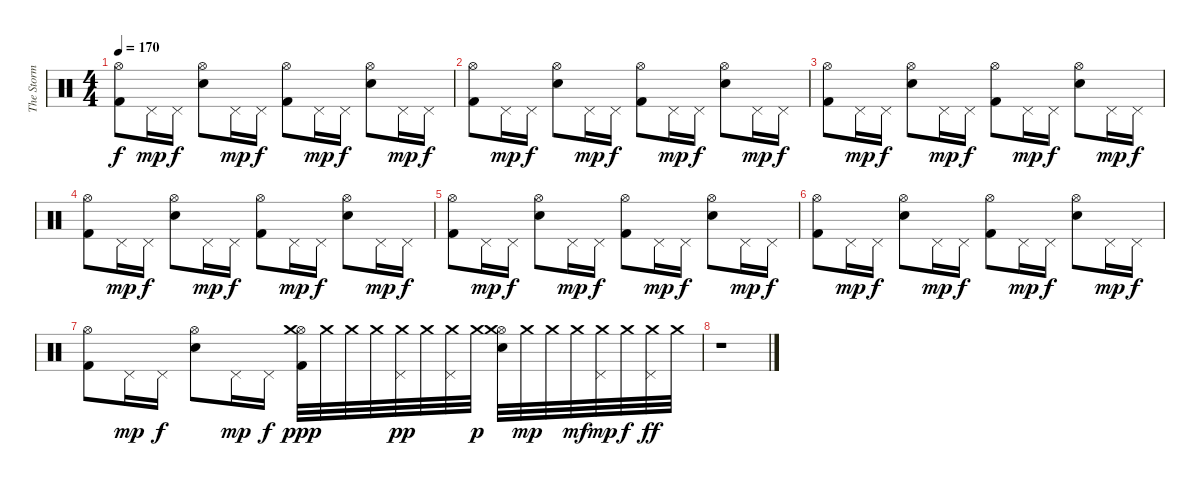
\track ("The Storm" "The Storm") {instrument percussion}
\staff {score}
\articulation defaults
\ts (4 4)
\tempo 170
\clef neutral
\ks c
("Kick (hit) 2" "Hi-Hat (open)").8{dy f} "Pedal Hi-Hat (hit)".16{dy mp} "Pedal Hi-Hat (hit)".16{dy f} ("Hi-Hat (open)" "Electric Snare (hit)").8 "Pedal Hi-Hat (hit)".16{dy mp} "Pedal Hi-Hat (hit)".16{dy f} ("Hi-Hat (open)" "Kick (hit) 2").8 "Pedal Hi-Hat (hit)".16{dy mp} "Pedal Hi-Hat (hit)".16{dy f} ("Electric Snare (hit)" "Hi-Hat (open)").8 "Pedal Hi-Hat (hit)".16{dy mp} "Pedal Hi-Hat (hit)".16{dy f} |
("Hi-Hat (open)" "Kick (hit) 2").8 "Pedal Hi-Hat (hit)".16{dy mp} "Pedal Hi-Hat (hit)".16{dy f} ("Electric Snare (hit)" "Hi-Hat (open)").8 "Pedal Hi-Hat (hit)".16{dy mp} "Pedal Hi-Hat (hit)".16{dy f} ("Kick (hit) 2" "Hi-Hat (open)").8 "Pedal Hi-Hat (hit)".16{dy mp} "Pedal Hi-Hat (hit)".16{dy f} ("Electric Snare (hit)" "Hi-Hat (open)").8 "Pedal Hi-Hat (hit)".16{dy mp} "Pedal Hi-Hat (hit)".16{dy f} |
("Hi-Hat (open)" "Kick (hit) 2").8 "Pedal Hi-Hat (hit)".16{dy mp} "Pedal Hi-Hat (hit)".16{dy f} ("Hi-Hat (open)" "Electric Snare (hit)").8 "Pedal Hi-Hat (hit)".16{dy mp} "Pedal Hi-Hat (hit)".16{dy f} ("Hi-Hat (open)" "Kick (hit) 2").8 "Pedal Hi-Hat (hit)".16{dy mp} "Pedal Hi-Hat (hit)".16{dy f} ("Hi-Hat (open)" "Electric Snare (hit)").8 "Pedal Hi-Hat (hit)".16{dy mp} "Pedal Hi-Hat (hit)".16{dy f} |
("Hi-Hat (open)" "Kick (hit) 2").8 "Pedal Hi-Hat (hit)".16{dy mp} "Pedal Hi-Hat (hit)".16{dy f} ("Hi-Hat (open)" "Electric Snare (hit)").8 "Pedal Hi-Hat (hit)".16{dy mp} "Pedal Hi-Hat (hit)".16{dy f} ("Kick (hit) 2" "Hi-Hat (open)").8 "Pedal Hi-Hat (hit)".16{dy mp} "Pedal Hi-Hat (hit)".16{dy f} ("Electric Snare (hit)" "Hi-Hat (open)").8 "Pedal Hi-Hat (hit)".16{dy mp} "Pedal Hi-Hat (hit)".16{dy f} |
("Hi-Hat (open)" "Kick (hit) 2").8 "Pedal Hi-Hat (hit)".16{dy mp} "Pedal Hi-Hat (hit)".16{dy f} ("Electric Snare (hit)" "Hi-Hat (open)").8 "Pedal Hi-Hat (hit)".16{dy mp} "Pedal Hi-Hat (hit)".16{dy f} ("Hi-Hat (open)" "Kick (hit) 2").8 "Pedal Hi-Hat (hit)".16{dy mp} "Pedal Hi-Hat (hit)".16{dy f} ("Electric Snare (hit)" "Hi-Hat (open)").8 "Pedal Hi-Hat (hit)".16{dy mp} "Pedal Hi-Hat (hit)".16{dy f} |
("Kick (hit) 2" "Hi-Hat (open)").8 "Pedal Hi-Hat (hit)".16{dy mp} "Pedal Hi-Hat (hit)".16{dy f} ("Electric Snare (hit)" "Hi-Hat (open)").8 "Pedal Hi-Hat (hit)".16{dy mp} "Pedal Hi-Hat (hit)".16{dy f} ("Kick (hit) 2" "Hi-Hat (open)").8 "Pedal Hi-Hat (hit)".16{dy mp} "Pedal Hi-Hat (hit)".16{dy f} ("Electric Snare (hit)" "Hi-Hat (open)").8 "Pedal Hi-Hat (hit)".16{dy mp} "Pedal Hi-Hat (hit)".16{dy f} |
("Hi-Hat (open)" "Kick (hit) 2").8 "Pedal Hi-Hat (hit)".16{dy mp} "Pedal Hi-Hat (hit)".16{dy f} ("Hi-Hat (open)" "Electric Snare (hit)").8 "Pedal Hi-Hat (hit)".16{dy mp} "Pedal Hi-Hat (hit)".16{dy f} ("Hi-Hat (open)" "Kick (hit) 2" "Crash medium (hit)").32{dy ppp} "Crash medium (hit)".32 "Crash medium (hit)".32 "Crash medium (hit)".32 ("Pedal Hi-Hat (hit)" "Crash medium (hit)").32{dy pp} "Crash medium (hit)".32 ("Pedal Hi-Hat (hit)" "Crash medium (hit)").32 "Crash medium (hit)".32{dy p} ("Electric Snare (hit)" "Hi-Hat (open)" "Crash medium (hit)").32 "Crash medium (hit)".32{dy mp} "Crash medium (hit)".32 "Crash medium (hit)".32{dy mf} ("Pedal Hi-Hat (hit)" "Crash medium (hit)").32{dy mp} "Crash medium (hit)".32{dy f} ("Pedal Hi-Hat (hit)" "Crash medium (hit)").32{dy ff} "Crash medium (hit)".32 |
r.1
